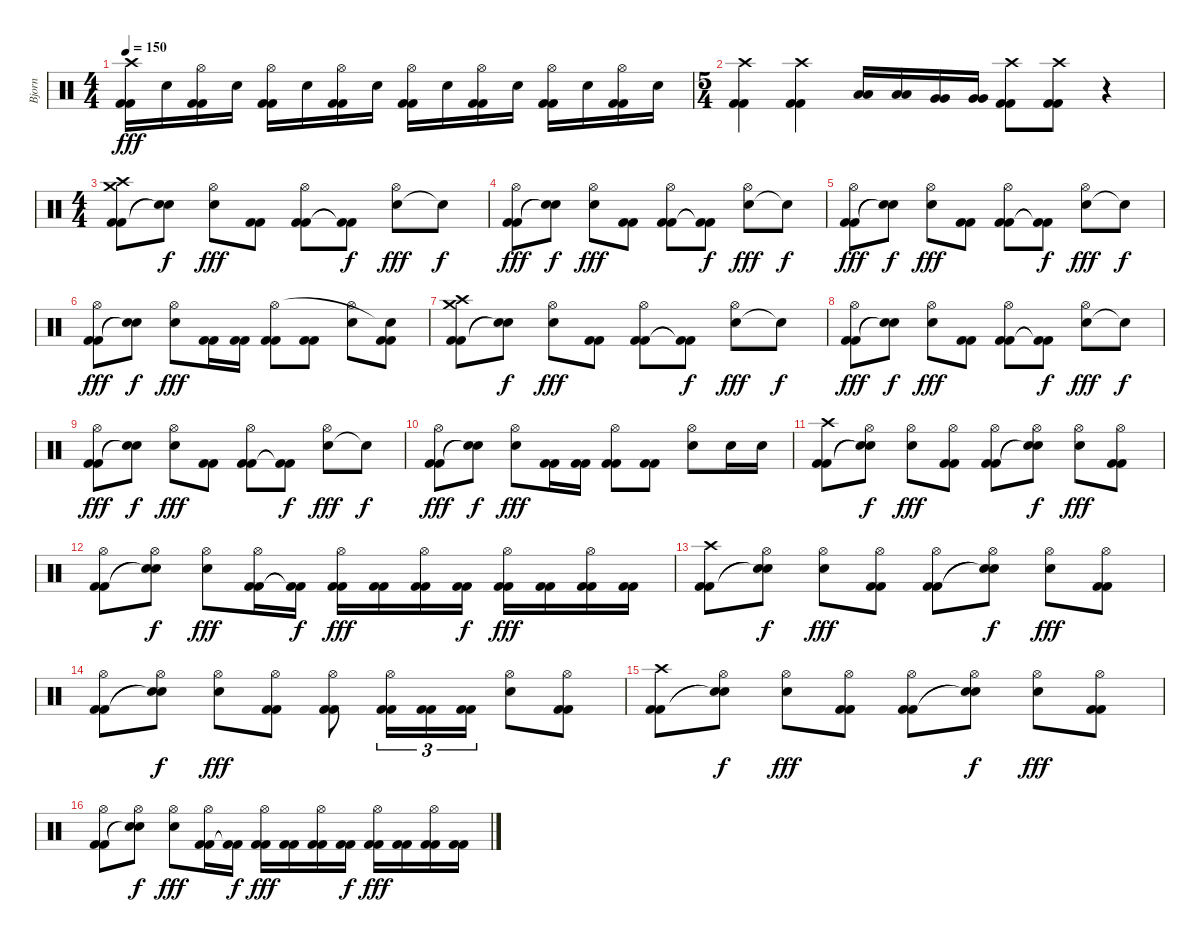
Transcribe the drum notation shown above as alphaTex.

\track ("Bjorn" "Bjorn") {instrument percussion}
\staff {score}
\articulation defaults
\ts (4 4)
\tempo 150
\clef neutral
\ks c
("Kick (hit) 2" "Kick (hit) 2" "Crash high (hit)").16{dy fff} "Snare (hit) 2".16 ("Kick (hit) 2" "Kick (hit) 2" "Hi-Hat (open)").16 "Snare (hit) 2".16 ("Kick (hit) 2" "Kick (hit) 2" "Hi-Hat (open)").16 "Snare (hit) 2".16 ("Kick (hit) 2" "Kick (hit) 2" "Hi-Hat (open)").16 "Snare (hit) 2".16 ("Kick (hit) 2" "Kick (hit) 2" "Hi-Hat (open)").16 "Snare (hit) 2".16 ("Kick (hit) 2" "Kick (hit) 2" "Hi-Hat (open)").16 "Snare (hit) 2".16 ("Kick (hit) 2" "Kick (hit) 2" "Hi-Hat (open)").16 "Snare (hit) 2".16 ("Kick (hit) 2" "Kick (hit) 2" "Hi-Hat (open)").16 "Snare (hit) 2".16 |
\ts (5 4)
("Kick (hit) 2" "Kick (hit) 2" "Crash high (hit)").4 ("Kick (hit) 2" "Kick (hit) 2" "Crash high (hit)").4 ("Low Tom (hit)" "Low Tom (hit)").16 ("Low Tom (hit)" "Low Tom (hit)").16 ("Very Low Tom (hit)" "Very Low Tom (hit)").16 ("Very Low Tom (hit)" "Very Low Tom (hit)").16 ("Kick (hit) 2" "Kick (hit) 2" "Crash high (hit)").8 ("Kick (hit) 2" "Kick (hit) 2" "Crash high (hit)").8 r.4 |
\ts (4 4)
("Kick (hit) 2" "Kick (hit) 2" "Crash high (hit)" "Crash medium (hit)").8 ("Snare (hit)"{t} "Snare (hit)"{t}).8{dy f} ("Snare (hit) 2" "Hi-Hat (open)").8{dy fff} ("Kick (hit) 2" "Kick (hit) 2").8 ("Kick (hit) 2" "Kick (hit) 2" "Hi-Hat (open)").8 ("Kick (hit) 2"{t} "Kick (hit) 2"{t}).8{dy f} ("Snare (hit) 2" "Hi-Hat (open)").8{dy fff} "Snare (hit)"{t}.8{dy f} |
("Kick (hit) 2" "Kick (hit) 2" "Hi-Hat (open)").8{dy fff} ("Snare (hit)"{t} "Snare (hit)"{t}).8{dy f} ("Snare (hit) 2" "Hi-Hat (open)").8{dy fff} ("Kick (hit) 2" "Kick (hit) 2").8 ("Kick (hit) 2" "Kick (hit) 2" "Hi-Hat (open)").8 ("Kick (hit) 2"{t} "Kick (hit) 2"{t}).8{dy f} ("Snare (hit) 2" "Hi-Hat (open)").8{dy fff} "Snare (hit)"{t}.8{dy f} |
("Kick (hit) 2" "Kick (hit) 2" "Hi-Hat (open)").8{dy fff} ("Snare (hit)"{t} "Snare (hit)"{t}).8{dy f} ("Snare (hit) 2" "Hi-Hat (open)").8{dy fff} ("Kick (hit) 2" "Kick (hit) 2").8 ("Kick (hit) 2" "Kick (hit) 2" "Hi-Hat (open)").8 ("Kick (hit) 2"{t} "Kick (hit) 2"{t}).8{dy f} ("Snare (hit) 2" "Hi-Hat (open)").8{dy fff} "Snare (hit)"{t}.8{dy f} |
("Kick (hit) 2" "Kick (hit) 2" "Hi-Hat (open)").8{dy fff} ("Snare (hit)"{t} "Snare (hit)"{t}).8{dy f} ("Snare (hit) 2" "Hi-Hat (open)").8{dy fff} ("Kick (hit) 2" "Kick (hit) 2").16 ("Kick (hit) 2" "Kick (hit) 2").16 ("Kick (hit) 2" "Kick (hit) 2" "Hi-Hat (open)").8 ("Kick (hit) 2" "Kick (hit) 2").8 ("Snare (hit) 2" "Hi-Hat (open)").8 ("Kick (hit) 2" "Kick (hit) 2" "Snare (hit)"{t}).8 |
("Kick (hit) 2" "Kick (hit) 2" "Crash high (hit)" "Crash medium (hit)").8 ("Snare (hit)"{t} "Snare (hit)"{t}).8{dy f} ("Snare (hit) 2" "Hi-Hat (open)").8{dy fff} ("Kick (hit) 2" "Kick (hit) 2").8 ("Kick (hit) 2" "Kick (hit) 2" "Hi-Hat (open)").8 ("Kick (hit) 2"{t} "Kick (hit) 2"{t}).8{dy f} ("Snare (hit) 2" "Hi-Hat (open)").8{dy fff} "Snare (hit)"{t}.8{dy f} |
("Kick (hit) 2" "Kick (hit) 2" "Hi-Hat (open)").8{dy fff} ("Snare (hit)"{t} "Snare (hit)"{t}).8{dy f} ("Snare (hit) 2" "Hi-Hat (open)").8{dy fff} ("Kick (hit) 2" "Kick (hit) 2").8 ("Kick (hit) 2" "Kick (hit) 2" "Hi-Hat (open)").8 ("Kick (hit) 2"{t} "Kick (hit) 2"{t}).8{dy f} ("Snare (hit) 2" "Hi-Hat (open)").8{dy fff} "Snare (hit)"{t}.8{dy f} |
("Kick (hit) 2" "Kick (hit) 2" "Hi-Hat (open)").8{dy fff} ("Snare (hit)"{t} "Snare (hit)"{t}).8{dy f} ("Snare (hit) 2" "Hi-Hat (open)").8{dy fff} ("Kick (hit) 2" "Kick (hit) 2").8 ("Kick (hit) 2" "Kick (hit) 2" "Hi-Hat (open)").8 ("Kick (hit) 2"{t} "Kick (hit) 2"{t}).8{dy f} ("Snare (hit) 2" "Hi-Hat (open)").8{dy fff} "Snare (hit)"{t}.8{dy f} |
("Kick (hit) 2" "Kick (hit) 2" "Hi-Hat (open)").8{dy fff} ("Snare (hit)"{t} "Snare (hit)"{t}).8{dy f} ("Snare (hit) 2" "Hi-Hat (open)").8{dy fff} ("Kick (hit) 2" "Kick (hit) 2").16 ("Kick (hit) 2" "Kick (hit) 2").16 ("Kick (hit) 2" "Kick (hit) 2" "Hi-Hat (open)").8 ("Kick (hit) 2" "Kick (hit) 2").8 ("Snare (hit) 2" "Hi-Hat (open)").8 "Snare (hit) 2".16 "Snare (hit) 2".16 |
("Kick (hit) 2" "Kick (hit) 2" "Crash high (hit)").8 ("Snare (hit)"{t} "Snare (hit)"{t} "Hi-Hat (open)").8{dy f} ("Snare (hit) 2" "Hi-Hat (open)").8{dy fff} ("Kick (hit) 2" "Kick (hit) 2" "Hi-Hat (open)").8 ("Kick (hit) 2" "Kick (hit) 2" "Hi-Hat (open)").8 ("Snare (hit)"{t} "Snare (hit)"{t} "Hi-Hat (open)").8{dy f} ("Snare (hit) 2" "Hi-Hat (open)").8{dy fff} ("Kick (hit) 2" "Kick (hit) 2" "Hi-Hat (open)").8 |
("Kick (hit) 2" "Kick (hit) 2" "Hi-Hat (open)").8 ("Snare (hit)"{t} "Snare (hit)"{t} "Hi-Hat (open)").8{dy f} ("Snare (hit) 2" "Hi-Hat (open)").8{dy fff} ("Kick (hit) 2" "Kick (hit) 2" "Hi-Hat (open)").16 ("Kick (hit) 2"{t} "Kick (hit) 2"{t}).16{dy f} ("Kick (hit) 2" "Kick (hit) 2" "Hi-Hat (open)").16{dy fff} ("Kick (hit) 2" "Kick (hit) 2").16 ("Kick (hit) 2" "Kick (hit) 2" "Hi-Hat (open)").16 ("Kick (hit) 2" "Kick (hit) 2").16{dy f} ("Kick (hit) 2" "Kick (hit) 2" "Hi-Hat (open)").16{dy fff} ("Kick (hit) 2" "Kick (hit) 2").16 ("Kick (hit) 2" "Kick (hit) 2" "Hi-Hat (open)").16 ("Kick (hit) 2" "Kick (hit) 2").16 |
("Kick (hit) 2" "Kick (hit) 2" "Crash high (hit)").8 ("Snare (hit)"{t} "Snare (hit)"{t} "Hi-Hat (open)").8{dy f} ("Snare (hit) 2" "Hi-Hat (open)").8{dy fff} ("Kick (hit) 2" "Kick (hit) 2" "Hi-Hat (open)").8 ("Kick (hit) 2" "Kick (hit) 2" "Hi-Hat (open)").8 ("Snare (hit)"{t} "Snare (hit)"{t} "Hi-Hat (open)").8{dy f} ("Snare (hit) 2" "Hi-Hat (open)").8{dy fff} ("Kick (hit) 2" "Kick (hit) 2" "Hi-Hat (open)").8 |
("Kick (hit) 2" "Kick (hit) 2" "Hi-Hat (open)").8 ("Snare (hit)"{t} "Snare (hit)"{t} "Hi-Hat (open)").8{dy f} ("Snare (hit) 2" "Hi-Hat (open)").8{dy fff} ("Kick (hit) 2" "Kick (hit) 2" "Hi-Hat (open)").8 ("Kick (hit) 2" "Kick (hit) 2" "Hi-Hat (open)").8 ("Kick (hit) 2" "Kick (hit) 2" "Hi-Hat (open)").16{tu (3 2)} ("Kick (hit) 2" "Kick (hit) 2").16{tu (3 2)} ("Kick (hit) 2" "Kick (hit) 2").16{tu (3 2)} ("Snare (hit) 2" "Hi-Hat (open)").8 ("Kick (hit) 2" "Kick (hit) 2" "Hi-Hat (open)").8 |
("Kick (hit) 2" "Kick (hit) 2" "Crash high (hit)").8 ("Snare (hit)"{t} "Snare (hit)"{t} "Hi-Hat (open)").8{dy f} ("Snare (hit) 2" "Hi-Hat (open)").8{dy fff} ("Kick (hit) 2" "Kick (hit) 2" "Hi-Hat (open)").8 ("Kick (hit) 2" "Kick (hit) 2" "Hi-Hat (open)").8 ("Snare (hit)"{t} "Snare (hit)"{t} "Hi-Hat (open)").8{dy f} ("Snare (hit) 2" "Hi-Hat (open)").8{dy fff} ("Kick (hit) 2" "Kick (hit) 2" "Hi-Hat (open)").8 |
("Kick (hit) 2" "Kick (hit) 2" "Hi-Hat (open)").8 ("Snare (hit)"{t} "Snare (hit)"{t} "Hi-Hat (open)").8{dy f} ("Snare (hit) 2" "Hi-Hat (open)").8{dy fff} ("Kick (hit) 2" "Kick (hit) 2" "Hi-Hat (open)").16 ("Kick (hit) 2"{t} "Kick (hit) 2"{t}).16{dy f} ("Kick (hit) 2" "Kick (hit) 2" "Hi-Hat (open)").16{dy fff} ("Kick (hit) 2" "Kick (hit) 2").16 ("Kick (hit) 2" "Kick (hit) 2" "Hi-Hat (open)").16 ("Kick (hit) 2" "Kick (hit) 2").16{dy f} ("Kick (hit) 2" "Kick (hit) 2" "Hi-Hat (open)").16{dy fff} ("Kick (hit) 2" "Kick (hit) 2").16 ("Kick (hit) 2" "Kick (hit) 2" "Hi-Hat (open)").16 ("Kick (hit) 2" "Kick (hit) 2").16
